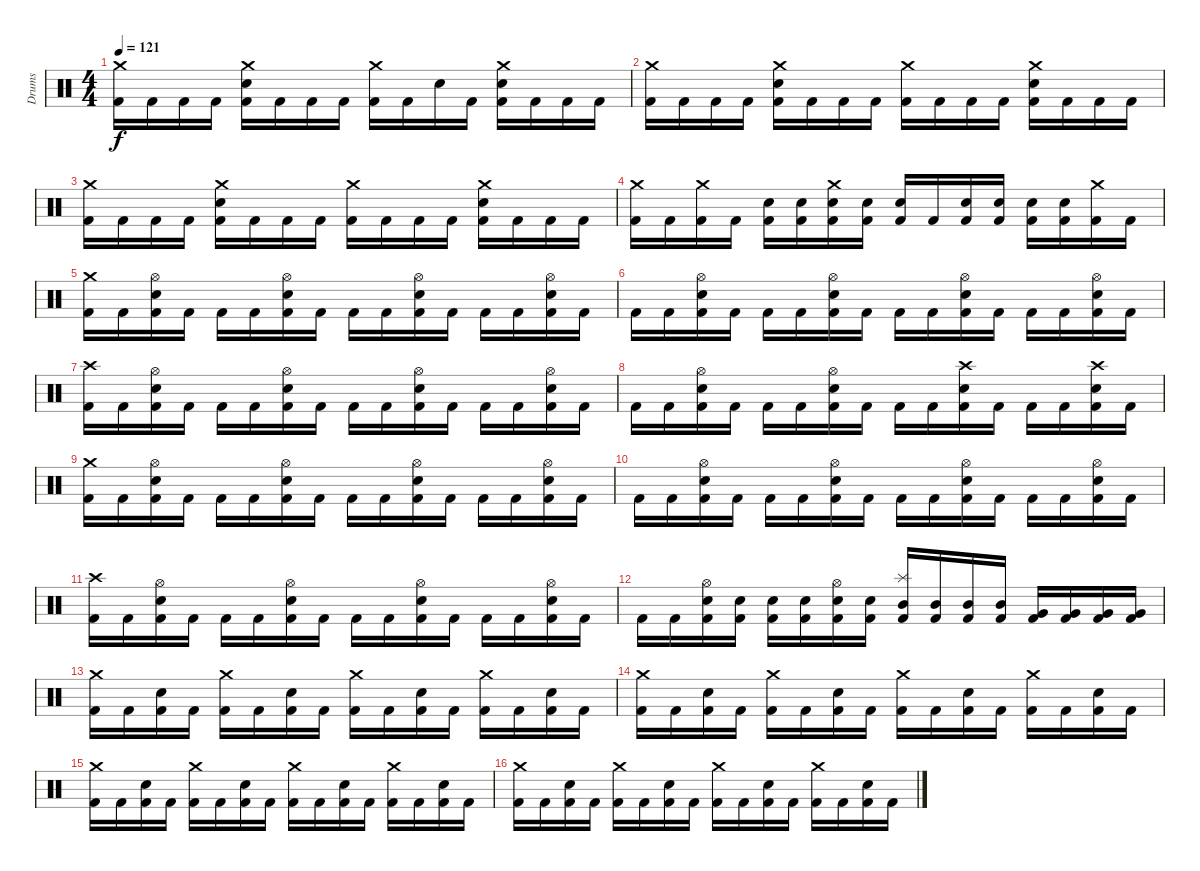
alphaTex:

\track ("Drums" "Drums") {instrument percussion}
\staff {score}
\articulation defaults
\ts (4 4)
\tempo 121
\clef neutral
\ks c
("Crash medium (hit)" "Kick (hit) 2").16{dy f} "Kick (hit) 2".16 "Kick (hit) 2".16 "Kick (hit) 2".16 ("Crash medium (hit)" "Electric Snare (hit)" "Kick (hit) 2").16 "Kick (hit) 2".16 "Kick (hit) 2".16 "Kick (hit) 2".16 ("Crash medium (hit)" "Kick (hit) 2").16 "Kick (hit) 2".16 "Snare (hit)".16 "Kick (hit) 2".16 ("Crash medium (hit)" "Electric Snare (hit)" "Kick (hit) 2").16 "Kick (hit) 2".16 "Kick (hit) 2".16 "Kick (hit) 2".16 |
("Crash medium (hit)" "Kick (hit) 2").16 "Kick (hit) 2".16 "Kick (hit) 2".16 "Kick (hit) 2".16 ("Crash medium (hit)" "Electric Snare (hit)" "Kick (hit) 2").16 "Kick (hit) 2".16 "Kick (hit) 2".16 "Kick (hit) 2".16 ("Crash medium (hit)" "Kick (hit) 2").16 "Kick (hit) 2".16 "Kick (hit) 2".16 "Kick (hit) 2".16 ("Crash medium (hit)" "Electric Snare (hit)" "Kick (hit) 2").16 "Kick (hit) 2".16 "Kick (hit) 2".16 "Kick (hit) 2".16 |
("Crash medium (hit)" "Kick (hit) 2").16 "Kick (hit) 2".16 "Kick (hit) 2".16 "Kick (hit) 2".16 ("Crash medium (hit)" "Electric Snare (hit)" "Kick (hit) 2").16 "Kick (hit) 2".16 "Kick (hit) 2".16 "Kick (hit) 2".16 ("Crash medium (hit)" "Kick (hit) 2").16 "Kick (hit) 2".16 "Kick (hit) 2".16 "Kick (hit) 2".16 ("Crash medium (hit)" "Electric Snare (hit)" "Kick (hit) 2").16 "Kick (hit) 2".16 "Kick (hit) 2".16 "Kick (hit) 2".16 |
("Crash medium (hit)" "Kick (hit) 2").16 "Kick (hit) 2".16 ("Crash medium (hit)" "Kick (hit) 2").16 "Kick (hit) 2".16 ("Electric Snare (hit)" "Kick (hit) 2").16 ("Electric Snare (hit)" "Kick (hit) 2").16 ("Crash medium (hit)" "Electric Snare (hit)" "Kick (hit) 2").16 ("Electric Snare (hit)" "Kick (hit) 2").16 ("Electric Snare (hit)" "Kick (hit) 2").16 "Kick (hit) 2".16 ("Electric Snare (hit)" "Kick (hit) 2").16 ("Electric Snare (hit)" "Kick (hit) 2").16 ("Electric Snare (hit)" "Kick (hit) 2").16 ("Electric Snare (hit)" "Kick (hit) 2").16 ("Crash medium (hit)" "Kick (hit) 2").16 "Kick (hit) 2".16 |
("Crash medium (hit)" "Kick (hit) 2").16 "Kick (hit) 2".16 ("Hi-Hat (open)" "Electric Snare (hit)" "Kick (hit) 2").16 "Kick (hit) 2".16 "Kick (hit) 2".16 "Kick (hit) 2".16 ("Hi-Hat (open)" "Electric Snare (hit)" "Kick (hit) 2").16 "Kick (hit) 2".16 "Kick (hit) 2".16 "Kick (hit) 2".16 ("Hi-Hat (open)" "Electric Snare (hit)" "Kick (hit) 2").16 "Kick (hit) 2".16 "Kick (hit) 2".16 "Kick (hit) 2".16 ("Hi-Hat (open)" "Electric Snare (hit)" "Kick (hit) 2").16 "Kick (hit) 2".16 |
"Kick (hit) 2".16 "Kick (hit) 2".16 ("Hi-Hat (open)" "Electric Snare (hit)" "Kick (hit) 2").16 "Kick (hit) 2".16 "Kick (hit) 2".16 "Kick (hit) 2".16 ("Hi-Hat (open)" "Electric Snare (hit)" "Kick (hit) 2").16 "Kick (hit) 2".16 "Kick (hit) 2".16 "Kick (hit) 2".16 ("Hi-Hat (open)" "Electric Snare (hit)" "Kick (hit) 2").16 "Kick (hit) 2".16 "Kick (hit) 2".16 "Kick (hit) 2".16 ("Hi-Hat (open)" "Electric Snare (hit)" "Kick (hit) 2").16 "Kick (hit) 2".16 |
("Crash high (hit)" "Kick (hit) 2").16 "Kick (hit) 2".16 ("Hi-Hat (open)" "Electric Snare (hit)" "Kick (hit) 2").16 "Kick (hit) 2".16 "Kick (hit) 2".16 "Kick (hit) 2".16 ("Hi-Hat (open)" "Electric Snare (hit)" "Kick (hit) 2").16 "Kick (hit) 2".16 "Kick (hit) 2".16 "Kick (hit) 2".16 ("Hi-Hat (open)" "Electric Snare (hit)" "Kick (hit) 2").16 "Kick (hit) 2".16 "Kick (hit) 2".16 "Kick (hit) 2".16 ("Hi-Hat (open)" "Electric Snare (hit)" "Kick (hit) 2").16 "Kick (hit) 2".16 |
"Kick (hit) 2".16 "Kick (hit) 2".16 ("Hi-Hat (open)" "Electric Snare (hit)" "Kick (hit) 2").16 "Kick (hit) 2".16 "Kick (hit) 2".16 "Kick (hit) 2".16 ("Hi-Hat (open)" "Electric Snare (hit)" "Kick (hit) 2").16 "Kick (hit) 2".16 "Kick (hit) 2".16 "Kick (hit) 2".16 ("Crash high (hit)" "Electric Snare (hit)" "Kick (hit) 2").16 "Kick (hit) 2".16 "Kick (hit) 2".16 "Kick (hit) 2".16 ("Crash high (hit)" "Electric Snare (hit)" "Kick (hit) 2").16 "Kick (hit) 2".16 |
("Crash medium (hit)" "Kick (hit) 2").16 "Kick (hit) 2".16 ("Hi-Hat (open)" "Electric Snare (hit)" "Kick (hit) 2").16 "Kick (hit) 2".16 "Kick (hit) 2".16 "Kick (hit) 2".16 ("Hi-Hat (open)" "Electric Snare (hit)" "Kick (hit) 2").16 "Kick (hit) 2".16 "Kick (hit) 2".16 "Kick (hit) 2".16 ("Hi-Hat (open)" "Electric Snare (hit)" "Kick (hit) 2").16 "Kick (hit) 2".16 "Kick (hit) 2".16 "Kick (hit) 2".16 ("Hi-Hat (open)" "Electric Snare (hit)" "Kick (hit) 2").16 "Kick (hit) 2".16 |
"Kick (hit) 2".16 "Kick (hit) 2".16 ("Hi-Hat (open)" "Electric Snare (hit)" "Kick (hit) 2").16 "Kick (hit) 2".16 "Kick (hit) 2".16 "Kick (hit) 2".16 ("Hi-Hat (open)" "Electric Snare (hit)" "Kick (hit) 2").16 "Kick (hit) 2".16 "Kick (hit) 2".16 "Kick (hit) 2".16 ("Hi-Hat (open)" "Electric Snare (hit)" "Kick (hit) 2").16 "Kick (hit) 2".16 "Kick (hit) 2".16 "Kick (hit) 2".16 ("Hi-Hat (open)" "Electric Snare (hit)" "Kick (hit) 2").16 "Kick (hit) 2".16 |
("Crash high (hit)" "Kick (hit) 2").16 "Kick (hit) 2".16 ("Hi-Hat (open)" "Electric Snare (hit)" "Kick (hit) 2").16 "Kick (hit) 2".16 "Kick (hit) 2".16 "Kick (hit) 2".16 ("Hi-Hat (open)" "Electric Snare (hit)" "Kick (hit) 2").16 "Kick (hit) 2".16 "Kick (hit) 2".16 "Kick (hit) 2".16 ("Hi-Hat (open)" "Electric Snare (hit)" "Kick (hit) 2").16 "Kick (hit) 2".16 "Kick (hit) 2".16 "Kick (hit) 2".16 ("Hi-Hat (open)" "Electric Snare (hit)" "Kick (hit) 2").16 "Kick (hit) 2".16 |
"Kick (hit) 2".16 "Kick (hit) 2".16 ("Hi-Hat (open)" "Electric Snare (hit)" "Kick (hit) 2").16 ("Electric Snare (hit)" "Kick (hit) 2").16 ("Electric Snare (hit)" "Kick (hit) 2").16 ("Electric Snare (hit)" "Kick (hit) 2").16 ("Hi-Hat (open)" "Electric Snare (hit)" "Kick (hit) 2").16 ("Electric Snare (hit)" "Kick (hit) 2").16 ("Splash (hit)" "Mid Tom (hit)" "Kick (hit) 2").16 ("Mid Tom (hit)" "Kick (hit) 2").16 ("Mid Tom (hit)" "Kick (hit) 2").16 ("Mid Tom (hit)" "Kick (hit) 2").16 ("Very Low Tom (hit)" "Kick (hit) 2").16 ("Very Low Tom (hit)" "Kick (hit) 2").16 ("Very Low Tom (hit)" "Kick (hit) 2").16 ("Very Low Tom (hit)" "Kick (hit) 2").16 |
("Crash medium (hit)" "Kick (hit) 2").16 "Kick (hit) 2".16 ("Electric Snare (hit)" "Kick (hit) 2").16 "Kick (hit) 2".16 ("Crash medium (hit)" "Kick (hit) 2").16 "Kick (hit) 2".16 ("Electric Snare (hit)" "Kick (hit) 2").16 "Kick (hit) 2".16 ("Crash medium (hit)" "Kick (hit) 2").16 "Kick (hit) 2".16 ("Electric Snare (hit)" "Kick (hit) 2").16 "Kick (hit) 2".16 ("Crash medium (hit)" "Kick (hit) 2").16 "Kick (hit) 2".16 ("Electric Snare (hit)" "Kick (hit) 2").16 "Kick (hit) 2".16 |
("Crash medium (hit)" "Kick (hit) 2").16 "Kick (hit) 2".16 ("Electric Snare (hit)" "Kick (hit) 2").16 "Kick (hit) 2".16 ("Crash medium (hit)" "Kick (hit) 2").16 "Kick (hit) 2".16 ("Electric Snare (hit)" "Kick (hit) 2").16 "Kick (hit) 2".16 ("Crash medium (hit)" "Kick (hit) 2").16 "Kick (hit) 2".16 ("Electric Snare (hit)" "Kick (hit) 2").16 "Kick (hit) 2".16 ("Crash medium (hit)" "Kick (hit) 2").16 "Kick (hit) 2".16 ("Electric Snare (hit)" "Kick (hit) 2").16 "Kick (hit) 2".16 |
("Crash medium (hit)" "Kick (hit) 2").16 "Kick (hit) 2".16 ("Electric Snare (hit)" "Kick (hit) 2").16 "Kick (hit) 2".16 ("Crash medium (hit)" "Kick (hit) 2").16 "Kick (hit) 2".16 ("Electric Snare (hit)" "Kick (hit) 2").16 "Kick (hit) 2".16 ("Crash medium (hit)" "Kick (hit) 2").16 "Kick (hit) 2".16 ("Electric Snare (hit)" "Kick (hit) 2").16 "Kick (hit) 2".16 ("Crash medium (hit)" "Kick (hit) 2").16 "Kick (hit) 2".16 ("Electric Snare (hit)" "Kick (hit) 2").16 "Kick (hit) 2".16 |
("Crash medium (hit)" "Kick (hit) 2").16 "Kick (hit) 2".16 ("Electric Snare (hit)" "Kick (hit) 2").16 "Kick (hit) 2".16 ("Crash medium (hit)" "Kick (hit) 2").16 "Kick (hit) 2".16 ("Electric Snare (hit)" "Kick (hit) 2").16 "Kick (hit) 2".16 ("Crash medium (hit)" "Kick (hit) 2").16 "Kick (hit) 2".16 ("Electric Snare (hit)" "Kick (hit) 2").16 "Kick (hit) 2".16 ("Crash medium (hit)" "Kick (hit) 2").16 "Kick (hit) 2".16 ("Electric Snare (hit)" "Kick (hit) 2").16 "Kick (hit) 2".16
